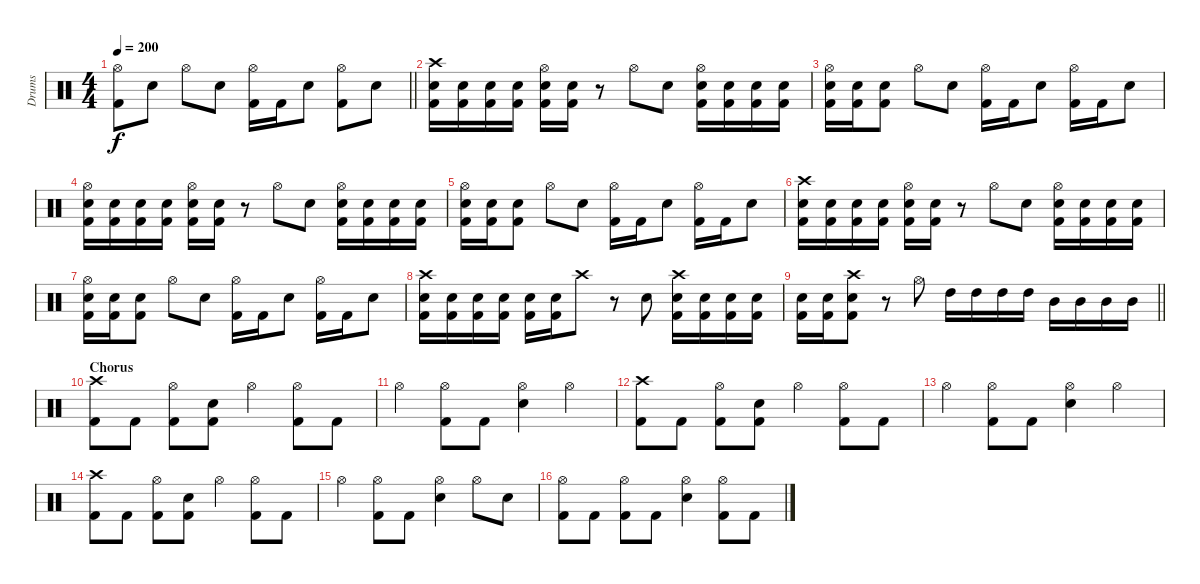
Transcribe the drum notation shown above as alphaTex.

\track ("Drums" "Drums") {instrument percussion}
\staff {score}
\articulation defaults
\ts (4 4)
\tempo 200
\clef neutral
\barLineRight lightlight
\ks c
("Hi-Hat (open)" "Kick (hit) 2").8{dy f} "Snare (hit) 2".8 "Hi-Hat (open)".8 "Snare (hit) 2".8 ("Hi-Hat (open)" "Kick (hit) 2").16 "Kick (hit) 2".16 "Snare (hit) 2".8 ("Hi-Hat (open)" "Kick (hit) 2").8 "Snare (hit) 2".8 |
("Crash high (hit)" "Snare (hit) 2" "Kick (hit) 2").16 ("Snare (hit) 2" "Kick (hit) 2").16 ("Snare (hit) 2" "Kick (hit) 2").16 ("Snare (hit) 2" "Kick (hit) 2").16 ("Hi-Hat (open)" "Snare (hit) 2" "Kick (hit) 2").16 ("Snare (hit) 2" "Kick (hit) 2").16 r.8 "Hi-Hat (open)".8 "Snare (hit) 2".8 ("Hi-Hat (open)" "Snare (hit) 2" "Kick (hit) 2").16 ("Snare (hit) 2" "Kick (hit) 2").16 ("Snare (hit) 2" "Kick (hit) 2").16 ("Snare (hit) 2" "Kick (hit) 2").16 |
("Hi-Hat (open)" "Snare (hit) 2" "Kick (hit) 2").16 ("Snare (hit) 2" "Kick (hit) 2").16 ("Snare (hit) 2" "Kick (hit) 2").8 "Hi-Hat (open)".8 "Snare (hit) 2".8 ("Hi-Hat (open)" "Kick (hit) 2").16 "Kick (hit) 2".16 "Snare (hit) 2".8 ("Hi-Hat (open)" "Kick (hit) 2").16 "Kick (hit) 2".16 "Snare (hit) 2".8 |
("Hi-Hat (open)" "Snare (hit) 2" "Kick (hit) 2").16 ("Snare (hit) 2" "Kick (hit) 2").16 ("Snare (hit) 2" "Kick (hit) 2").16 ("Snare (hit) 2" "Kick (hit) 2").16 ("Hi-Hat (open)" "Snare (hit) 2" "Kick (hit) 2").16 ("Snare (hit) 2" "Kick (hit) 2").16 r.8 "Hi-Hat (open)".8 "Snare (hit) 2".8 ("Hi-Hat (open)" "Snare (hit) 2" "Kick (hit) 2").16 ("Snare (hit) 2" "Kick (hit) 2").16 ("Snare (hit) 2" "Kick (hit) 2").16 ("Snare (hit) 2" "Kick (hit) 2").16 |
("Hi-Hat (open)" "Snare (hit) 2" "Kick (hit) 2").16 ("Snare (hit) 2" "Kick (hit) 2").16 ("Snare (hit) 2" "Kick (hit) 2").8 "Hi-Hat (open)".8 "Snare (hit) 2".8 ("Hi-Hat (open)" "Kick (hit) 2").16 "Kick (hit) 2".16 "Snare (hit) 2".8 ("Hi-Hat (open)" "Kick (hit) 2").16 "Kick (hit) 2".16 "Snare (hit) 2".8 |
("Crash high (hit)" "Snare (hit) 2" "Kick (hit) 2").16 ("Snare (hit) 2" "Kick (hit) 2").16 ("Snare (hit) 2" "Kick (hit) 2").16 ("Snare (hit) 2" "Kick (hit) 2").16 ("Hi-Hat (open)" "Snare (hit) 2" "Kick (hit) 2").16 ("Snare (hit) 2" "Kick (hit) 2").16 r.8 "Hi-Hat (open)".8 "Snare (hit) 2".8 ("Hi-Hat (open)" "Snare (hit) 2" "Kick (hit) 2").16 ("Snare (hit) 2" "Kick (hit) 2").16 ("Snare (hit) 2" "Kick (hit) 2").16 ("Snare (hit) 2" "Kick (hit) 2").16 |
("Hi-Hat (open)" "Snare (hit) 2" "Kick (hit) 2").16 ("Snare (hit) 2" "Kick (hit) 2").16 ("Snare (hit) 2" "Kick (hit) 2").8 "Hi-Hat (open)".8 "Snare (hit) 2".8 ("Hi-Hat (open)" "Kick (hit) 2").16 "Kick (hit) 2".16 "Snare (hit) 2".8 ("Hi-Hat (open)" "Kick (hit) 2").16 "Kick (hit) 2".16 "Snare (hit) 2".8 |
("Crash high (hit)" "Snare (hit) 2" "Kick (hit) 2").16 ("Snare (hit) 2" "Kick (hit) 2").16 ("Snare (hit) 2" "Kick (hit) 2").16 ("Snare (hit) 2" "Kick (hit) 2").16 ("Snare (hit) 2" "Kick (hit) 2").16 ("Snare (hit) 2" "Kick (hit) 2").16 "Crash high (hit)".8 r.8 "Snare (hit) 2".8 ("Crash high (hit)" "Snare (hit) 2" "Kick (hit) 2").16 ("Snare (hit) 2" "Kick (hit) 2").16 ("Snare (hit) 2" "Kick (hit) 2").16 ("Snare (hit) 2" "Kick (hit) 2").16 |
\barLineRight lightlight
("Snare (hit) 2" "Kick (hit) 2").16 ("Snare (hit) 2" "Kick (hit) 2").16 ("Crash high (hit)" "Snare (hit) 2" "Kick (hit) 2").8 r.8 "Hi-Hat (open)".8 "High Tom (hit)".16 "High Tom (hit)".16 "High Tom (hit)".16 "High Tom (hit)".16 "Mid Tom (hit)".16 "Mid Tom (hit)".16 "Mid Tom (hit)".16 "Mid Tom (hit)".16 |
\section ("" "Chorus")
("Crash high (hit)" "Kick (hit) 2").8 "Kick (hit) 2".8 ("Hi-Hat (open)" "Kick (hit) 2").8 ("Snare (hit) 2" "Kick (hit) 2").8 "Hi-Hat (open)".4 ("Hi-Hat (open)" "Kick (hit) 2").8 "Kick (hit) 2".8 |
"Hi-Hat (open)".4 ("Hi-Hat (open)" "Kick (hit) 2").8 "Kick (hit) 2".8 ("Hi-Hat (open)" "Snare (hit) 2").4 "Hi-Hat (open)".4 |
("Crash high (hit)" "Kick (hit) 2").8 "Kick (hit) 2".8 ("Hi-Hat (open)" "Kick (hit) 2").8 ("Snare (hit) 2" "Kick (hit) 2").8 "Hi-Hat (open)".4 ("Hi-Hat (open)" "Kick (hit) 2").8 "Kick (hit) 2".8 |
"Hi-Hat (open)".4 ("Hi-Hat (open)" "Kick (hit) 2").8 "Kick (hit) 2".8 ("Hi-Hat (open)" "Snare (hit) 2").4 "Hi-Hat (open)".4 |
("Crash high (hit)" "Kick (hit) 2").8 "Kick (hit) 2".8 ("Hi-Hat (open)" "Kick (hit) 2").8 ("Snare (hit) 2" "Kick (hit) 2").8 "Hi-Hat (open)".4 ("Hi-Hat (open)" "Kick (hit) 2").8 "Kick (hit) 2".8 |
"Hi-Hat (open)".4 ("Hi-Hat (open)" "Kick (hit) 2").8 "Kick (hit) 2".8 ("Hi-Hat (open)" "Snare (hit) 2").4 "Hi-Hat (open)".8 "Snare (hit) 2".8 |
("Hi-Hat (open)" "Kick (hit) 2").8 "Kick (hit) 2".8 ("Hi-Hat (open)" "Kick (hit) 2").8 "Kick (hit) 2".8 ("Hi-Hat (open)" "Snare (hit) 2").4 ("Hi-Hat (open)" "Kick (hit) 2").8 "Kick (hit) 2".8
